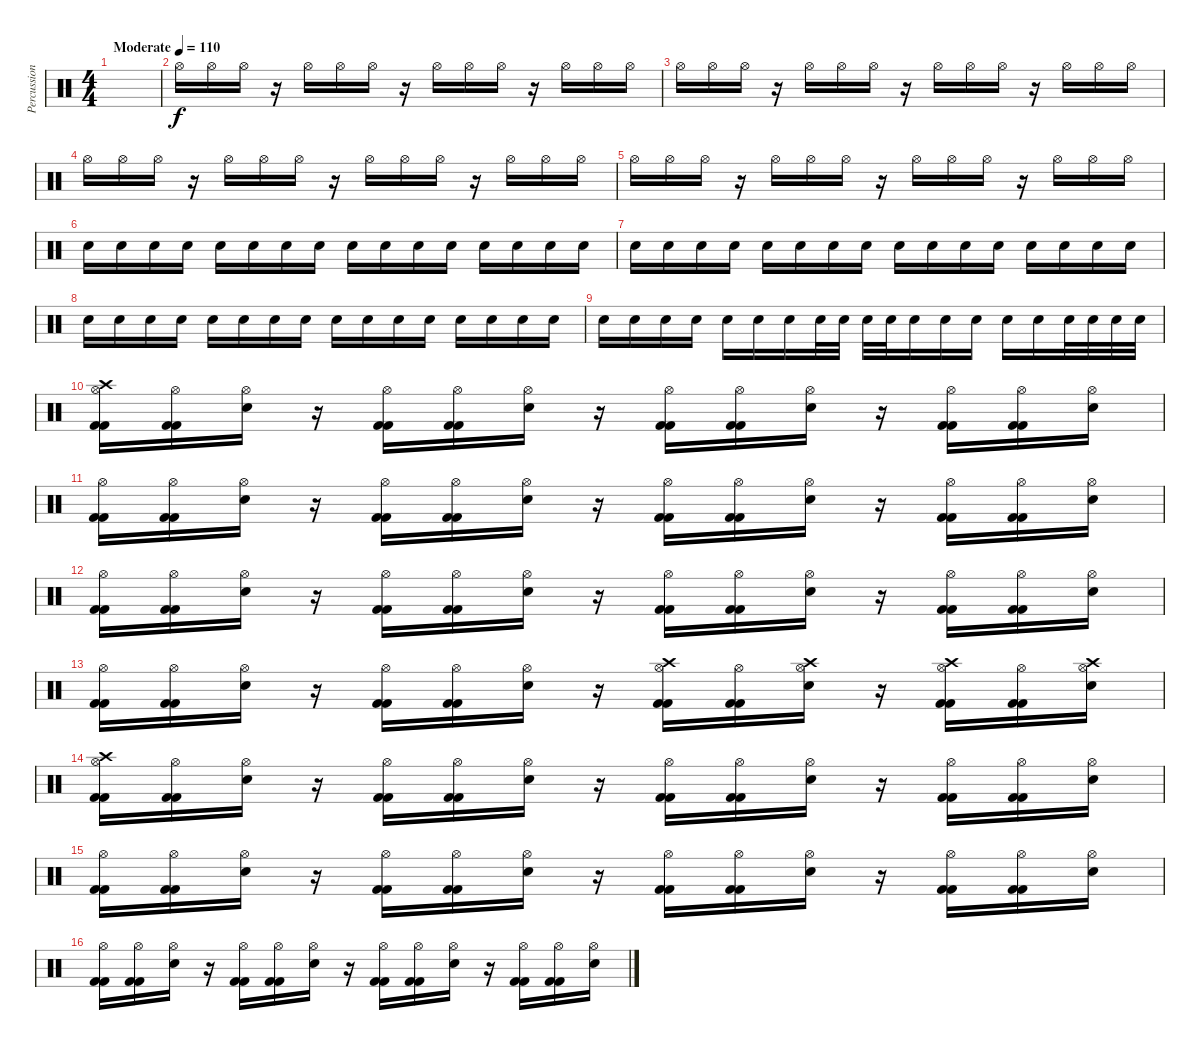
\track ("Percussions" "Percussion") {instrument percussion}
\staff {score}
\articulation defaults
\ts (4 4)
\tempo (110 "Moderate")
\clef neutral
\ks c
|
"Hi-Hat (open)".16 "Hi-Hat (open)".16 "Hi-Hat (open)".16 r.16 "Hi-Hat (open)".16 "Hi-Hat (open)".16 "Hi-Hat (open)".16 r.16 "Hi-Hat (open)".16 "Hi-Hat (open)".16 "Hi-Hat (open)".16 r.16 "Hi-Hat (open)".16 "Hi-Hat (open)".16 "Hi-Hat (open)".16 |
"Hi-Hat (open)".16 "Hi-Hat (open)".16 "Hi-Hat (open)".16 r.16 "Hi-Hat (open)".16 "Hi-Hat (open)".16 "Hi-Hat (open)".16 r.16 "Hi-Hat (open)".16 "Hi-Hat (open)".16 "Hi-Hat (open)".16 r.16 "Hi-Hat (open)".16 "Hi-Hat (open)".16 "Hi-Hat (open)".16 |
"Hi-Hat (open)".16 "Hi-Hat (open)".16 "Hi-Hat (open)".16 r.16 "Hi-Hat (open)".16 "Hi-Hat (open)".16 "Hi-Hat (open)".16 r.16 "Hi-Hat (open)".16 "Hi-Hat (open)".16 "Hi-Hat (open)".16 r.16 "Hi-Hat (open)".16 "Hi-Hat (open)".16 "Hi-Hat (open)".16 |
"Hi-Hat (open)".16 "Hi-Hat (open)".16 "Hi-Hat (open)".16 r.16 "Hi-Hat (open)".16 "Hi-Hat (open)".16 "Hi-Hat (open)".16 r.16 "Hi-Hat (open)".16 "Hi-Hat (open)".16 "Hi-Hat (open)".16 r.16 "Hi-Hat (open)".16 "Hi-Hat (open)".16 "Hi-Hat (open)".16 |
"Snare (hit) 2".16{volume 10} "Snare (hit) 2".16 "Snare (hit) 2".16 "Snare (hit) 2".16 "Snare (hit) 2".16 "Snare (hit) 2".16 "Snare (hit) 2".16 "Snare (hit) 2".16 "Snare (hit) 2".16 "Snare (hit) 2".16 "Snare (hit) 2".16 "Snare (hit) 2".16 "Snare (hit) 2".16 "Snare (hit) 2".16 "Snare (hit) 2".16 "Snare (hit) 2".16 |
"Snare (hit) 2".16 "Snare (hit) 2".16 "Snare (hit) 2".16 "Snare (hit) 2".16 "Snare (hit) 2".16 "Snare (hit) 2".16 "Snare (hit) 2".16 "Snare (hit) 2".16 "Snare (hit) 2".16 "Snare (hit) 2".16 "Snare (hit) 2".16 "Snare (hit) 2".16 "Snare (hit) 2".16 "Snare (hit) 2".16 "Snare (hit) 2".16 "Snare (hit) 2".16 |
"Snare (hit) 2".16{volume 12} "Snare (hit) 2".16 "Snare (hit) 2".16 "Snare (hit) 2".16 "Snare (hit) 2".16 "Snare (hit) 2".16 "Snare (hit) 2".16 "Snare (hit) 2".16 "Snare (hit) 2".16 "Snare (hit) 2".16 "Snare (hit) 2".16 "Snare (hit) 2".16 "Snare (hit) 2".16 "Snare (hit) 2".16 "Snare (hit) 2".16 "Snare (hit) 2".16 |
"Snare (hit) 2".16{volume 16} "Snare (hit) 2".16 "Snare (hit) 2".16 "Snare (hit) 2".16 "Snare (hit) 2".16 "Snare (hit) 2".16 "Snare (hit) 2".16 "Snare (hit) 2".32 "Snare (hit) 2".32 "Snare (hit) 2".32 "Snare (hit) 2".32 "Snare (hit) 2".16 "Snare (hit) 2".16 "Snare (hit) 2".16 "Snare (hit) 2".16 "Snare (hit) 2".16 "Snare (hit) 2".32 "Snare (hit) 2".32 "Snare (hit) 2".32 "Snare (hit) 2".32 |
("Crash high (hit)" "Hi-Hat (open)" "Kick (hit) 2" "Kick (hit) 2").16 ("Hi-Hat (open)" "Kick (hit) 2" "Kick (hit) 2").16 ("Hi-Hat (open)" "Snare (hit) 2").16 r.16 ("Hi-Hat (open)" "Kick (hit) 2" "Kick (hit) 2").16 ("Hi-Hat (open)" "Kick (hit) 2" "Kick (hit) 2").16 ("Hi-Hat (open)" "Snare (hit) 2").16 r.16 ("Hi-Hat (open)" "Kick (hit) 2" "Kick (hit) 2").16 ("Hi-Hat (open)" "Kick (hit) 2" "Kick (hit) 2").16 ("Hi-Hat (open)" "Snare (hit) 2").16 r.16 ("Hi-Hat (open)" "Kick (hit) 2" "Kick (hit) 2").16 ("Hi-Hat (open)" "Kick (hit) 2" "Kick (hit) 2").16 ("Hi-Hat (open)" "Snare (hit) 2").16 |
("Hi-Hat (open)" "Kick (hit) 2" "Kick (hit) 2").16 ("Hi-Hat (open)" "Kick (hit) 2" "Kick (hit) 2").16 ("Hi-Hat (open)" "Snare (hit) 2").16 r.16 ("Hi-Hat (open)" "Kick (hit) 2" "Kick (hit) 2").16 ("Hi-Hat (open)" "Kick (hit) 2" "Kick (hit) 2").16 ("Hi-Hat (open)" "Snare (hit) 2").16 r.16 ("Hi-Hat (open)" "Kick (hit) 2" "Kick (hit) 2").16 ("Hi-Hat (open)" "Kick (hit) 2" "Kick (hit) 2").16 ("Hi-Hat (open)" "Snare (hit) 2").16 r.16 ("Hi-Hat (open)" "Kick (hit) 2" "Kick (hit) 2").16 ("Hi-Hat (open)" "Kick (hit) 2" "Kick (hit) 2").16 ("Hi-Hat (open)" "Snare (hit) 2").16 |
("Hi-Hat (open)" "Kick (hit) 2" "Kick (hit) 2").16 ("Hi-Hat (open)" "Kick (hit) 2" "Kick (hit) 2").16 ("Hi-Hat (open)" "Snare (hit) 2").16 r.16 ("Hi-Hat (open)" "Kick (hit) 2" "Kick (hit) 2").16 ("Hi-Hat (open)" "Kick (hit) 2" "Kick (hit) 2").16 ("Hi-Hat (open)" "Snare (hit) 2").16 r.16 ("Hi-Hat (open)" "Kick (hit) 2" "Kick (hit) 2").16 ("Hi-Hat (open)" "Kick (hit) 2" "Kick (hit) 2").16 ("Hi-Hat (open)" "Snare (hit) 2").16 r.16 ("Hi-Hat (open)" "Kick (hit) 2" "Kick (hit) 2").16 ("Hi-Hat (open)" "Kick (hit) 2" "Kick (hit) 2").16 ("Hi-Hat (open)" "Snare (hit) 2").16 |
("Hi-Hat (open)" "Kick (hit) 2" "Kick (hit) 2").16 ("Hi-Hat (open)" "Kick (hit) 2" "Kick (hit) 2").16 ("Hi-Hat (open)" "Snare (hit) 2").16 r.16 ("Hi-Hat (open)" "Kick (hit) 2" "Kick (hit) 2").16 ("Hi-Hat (open)" "Kick (hit) 2" "Kick (hit) 2").16 ("Hi-Hat (open)" "Snare (hit) 2").16 r.16 ("Crash high (hit)" "Hi-Hat (open)" "Kick (hit) 2" "Kick (hit) 2").16 ("Hi-Hat (open)" "Kick (hit) 2" "Kick (hit) 2").16 ("Crash high (hit)" "Hi-Hat (open)" "Snare (hit) 2").16 r.16 ("Crash high (hit)" "Hi-Hat (open)" "Kick (hit) 2" "Kick (hit) 2").16 ("Hi-Hat (open)" "Kick (hit) 2" "Kick (hit) 2").16 ("Crash high (hit)" "Hi-Hat (open)" "Snare (hit) 2").16 |
("Crash high (hit)" "Hi-Hat (open)" "Kick (hit) 2" "Kick (hit) 2").16 ("Hi-Hat (open)" "Kick (hit) 2" "Kick (hit) 2").16 ("Hi-Hat (open)" "Snare (hit) 2").16 r.16 ("Hi-Hat (open)" "Kick (hit) 2" "Kick (hit) 2").16 ("Hi-Hat (open)" "Kick (hit) 2" "Kick (hit) 2").16 ("Hi-Hat (open)" "Snare (hit) 2").16 r.16 ("Hi-Hat (open)" "Kick (hit) 2" "Kick (hit) 2").16 ("Hi-Hat (open)" "Kick (hit) 2" "Kick (hit) 2").16 ("Hi-Hat (open)" "Snare (hit) 2").16 r.16 ("Hi-Hat (open)" "Kick (hit) 2" "Kick (hit) 2").16 ("Hi-Hat (open)" "Kick (hit) 2" "Kick (hit) 2").16 ("Hi-Hat (open)" "Snare (hit) 2").16 |
("Hi-Hat (open)" "Kick (hit) 2" "Kick (hit) 2").16 ("Hi-Hat (open)" "Kick (hit) 2" "Kick (hit) 2").16 ("Hi-Hat (open)" "Snare (hit) 2").16 r.16 ("Hi-Hat (open)" "Kick (hit) 2" "Kick (hit) 2").16 ("Hi-Hat (open)" "Kick (hit) 2" "Kick (hit) 2").16 ("Hi-Hat (open)" "Snare (hit) 2").16 r.16 ("Hi-Hat (open)" "Kick (hit) 2" "Kick (hit) 2").16 ("Hi-Hat (open)" "Kick (hit) 2" "Kick (hit) 2").16 ("Hi-Hat (open)" "Snare (hit) 2").16 r.16 ("Hi-Hat (open)" "Kick (hit) 2" "Kick (hit) 2").16 ("Hi-Hat (open)" "Kick (hit) 2" "Kick (hit) 2").16 ("Hi-Hat (open)" "Snare (hit) 2").16 |
("Hi-Hat (open)" "Kick (hit) 2" "Kick (hit) 2").16 ("Hi-Hat (open)" "Kick (hit) 2" "Kick (hit) 2").16 ("Hi-Hat (open)" "Snare (hit) 2").16 r.16 ("Hi-Hat (open)" "Kick (hit) 2" "Kick (hit) 2").16 ("Hi-Hat (open)" "Kick (hit) 2" "Kick (hit) 2").16 ("Hi-Hat (open)" "Snare (hit) 2").16 r.16 ("Hi-Hat (open)" "Kick (hit) 2" "Kick (hit) 2").16 ("Hi-Hat (open)" "Kick (hit) 2" "Kick (hit) 2").16 ("Hi-Hat (open)" "Snare (hit) 2").16 r.16 ("Hi-Hat (open)" "Kick (hit) 2" "Kick (hit) 2").16 ("Hi-Hat (open)" "Kick (hit) 2" "Kick (hit) 2").16 ("Hi-Hat (open)" "Snare (hit) 2").16
